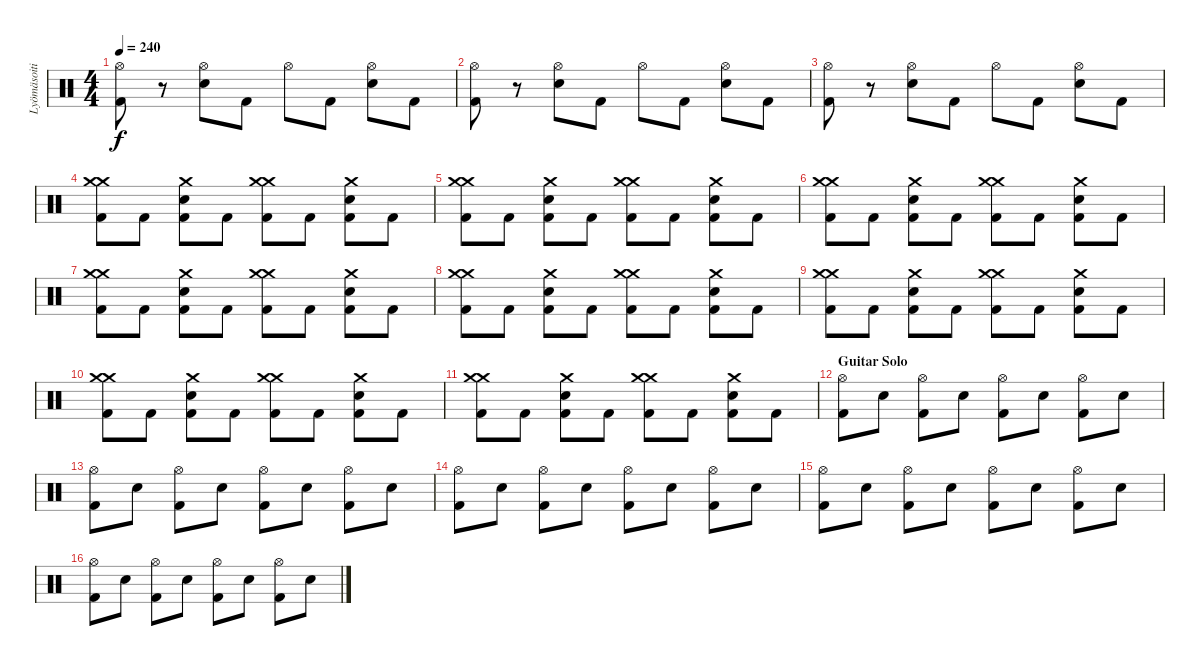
\track ("Lyömäsoitin" "Lyömäsoiti") {instrument percussion}
\staff {score}
\articulation defaults
\ts (4 4)
\tempo 240
\clef neutral
\ks c
("Hi-Hat (open)" "Kick (hit) 2").8{dy f} r.8 ("Hi-Hat (open)" "Snare (hit) 2").8 "Kick (hit) 2".8 "Hi-Hat (open)".8 "Kick (hit) 2".8 ("Hi-Hat (open)" "Snare (hit) 2").8 "Kick (hit) 2".8 |
("Hi-Hat (open)" "Kick (hit) 2").8 r.8 ("Hi-Hat (open)" "Snare (hit) 2").8 "Kick (hit) 2".8 "Hi-Hat (open)".8 "Kick (hit) 2".8 ("Hi-Hat (open)" "Snare (hit) 2").8 "Kick (hit) 2".8 |
("Hi-Hat (open)" "Kick (hit) 2").8 r.8 ("Hi-Hat (open)" "Snare (hit) 2").8 "Kick (hit) 2".8 "Hi-Hat (open)".8 "Kick (hit) 2".8 ("Hi-Hat (open)" "Snare (hit) 2").8 "Kick (hit) 2".8 |
("Crash medium (hit)" "Crash medium (hit)" "Kick (hit) 2").8 "Kick (hit) 2".8 ("Crash medium (hit)" "Snare (hit) 2" "Kick (hit) 2").8 "Kick (hit) 2".8 ("Crash medium (hit)" "Crash medium (hit)" "Kick (hit) 2").8 "Kick (hit) 2".8 ("Crash medium (hit)" "Snare (hit) 2" "Kick (hit) 2").8 "Kick (hit) 2".8 |
("Crash medium (hit)" "Crash medium (hit)" "Kick (hit) 2").8 "Kick (hit) 2".8 ("Crash medium (hit)" "Snare (hit) 2" "Kick (hit) 2").8 "Kick (hit) 2".8 ("Crash medium (hit)" "Crash medium (hit)" "Kick (hit) 2").8 "Kick (hit) 2".8 ("Crash medium (hit)" "Snare (hit) 2" "Kick (hit) 2").8 "Kick (hit) 2".8 |
("Crash medium (hit)" "Crash medium (hit)" "Kick (hit) 2").8 "Kick (hit) 2".8 ("Crash medium (hit)" "Snare (hit) 2" "Kick (hit) 2").8 "Kick (hit) 2".8 ("Crash medium (hit)" "Crash medium (hit)" "Kick (hit) 2").8 "Kick (hit) 2".8 ("Crash medium (hit)" "Snare (hit) 2" "Kick (hit) 2").8 "Kick (hit) 2".8 |
("Crash medium (hit)" "Crash medium (hit)" "Kick (hit) 2").8 "Kick (hit) 2".8 ("Crash medium (hit)" "Snare (hit) 2" "Kick (hit) 2").8 "Kick (hit) 2".8 ("Crash medium (hit)" "Crash medium (hit)" "Kick (hit) 2").8 "Kick (hit) 2".8 ("Crash medium (hit)" "Snare (hit) 2" "Kick (hit) 2").8 "Kick (hit) 2".8 |
("Crash medium (hit)" "Crash medium (hit)" "Kick (hit) 2").8 "Kick (hit) 2".8 ("Crash medium (hit)" "Snare (hit) 2" "Kick (hit) 2").8 "Kick (hit) 2".8 ("Crash medium (hit)" "Crash medium (hit)" "Kick (hit) 2").8 "Kick (hit) 2".8 ("Crash medium (hit)" "Snare (hit) 2" "Kick (hit) 2").8 "Kick (hit) 2".8 |
("Crash medium (hit)" "Crash medium (hit)" "Kick (hit) 2").8 "Kick (hit) 2".8 ("Crash medium (hit)" "Snare (hit) 2" "Kick (hit) 2").8 "Kick (hit) 2".8 ("Crash medium (hit)" "Crash medium (hit)" "Kick (hit) 2").8 "Kick (hit) 2".8 ("Crash medium (hit)" "Snare (hit) 2" "Kick (hit) 2").8 "Kick (hit) 2".8 |
("Crash medium (hit)" "Crash medium (hit)" "Kick (hit) 2").8 "Kick (hit) 2".8 ("Crash medium (hit)" "Snare (hit) 2" "Kick (hit) 2").8 "Kick (hit) 2".8 ("Crash medium (hit)" "Crash medium (hit)" "Kick (hit) 2").8 "Kick (hit) 2".8 ("Crash medium (hit)" "Snare (hit) 2" "Kick (hit) 2").8 "Kick (hit) 2".8 |
("Crash medium (hit)" "Crash medium (hit)" "Kick (hit) 2").8 "Kick (hit) 2".8 ("Crash medium (hit)" "Snare (hit) 2" "Kick (hit) 2").8 "Kick (hit) 2".8 ("Crash medium (hit)" "Crash medium (hit)" "Kick (hit) 2").8 "Kick (hit) 2".8 ("Crash medium (hit)" "Snare (hit) 2" "Kick (hit) 2").8 "Kick (hit) 2".8 |
\section ("" "Guitar Solo")
("Hi-Hat (open)" "Kick (hit) 2").8 "Snare (hit) 2".8 ("Hi-Hat (open)" "Kick (hit) 2").8 "Snare (hit) 2".8 ("Hi-Hat (open)" "Kick (hit) 2").8 "Snare (hit) 2".8 ("Hi-Hat (open)" "Kick (hit) 2").8 "Snare (hit) 2".8 |
("Hi-Hat (open)" "Kick (hit) 2").8 "Snare (hit) 2".8 ("Hi-Hat (open)" "Kick (hit) 2").8 "Snare (hit) 2".8 ("Hi-Hat (open)" "Kick (hit) 2").8 "Snare (hit) 2".8 ("Hi-Hat (open)" "Kick (hit) 2").8 "Snare (hit) 2".8 |
("Hi-Hat (open)" "Kick (hit) 2").8 "Snare (hit) 2".8 ("Hi-Hat (open)" "Kick (hit) 2").8 "Snare (hit) 2".8 ("Hi-Hat (open)" "Kick (hit) 2").8 "Snare (hit) 2".8 ("Hi-Hat (open)" "Kick (hit) 2").8 "Snare (hit) 2".8 |
("Hi-Hat (open)" "Kick (hit) 2").8 "Snare (hit) 2".8 ("Hi-Hat (open)" "Kick (hit) 2").8 "Snare (hit) 2".8 ("Hi-Hat (open)" "Kick (hit) 2").8 "Snare (hit) 2".8 ("Hi-Hat (open)" "Kick (hit) 2").8 "Snare (hit) 2".8 |
("Hi-Hat (open)" "Kick (hit) 2").8 "Snare (hit) 2".8 ("Hi-Hat (open)" "Kick (hit) 2").8 "Snare (hit) 2".8 ("Hi-Hat (open)" "Kick (hit) 2").8 "Snare (hit) 2".8 ("Hi-Hat (open)" "Kick (hit) 2").8 "Snare (hit) 2".8
